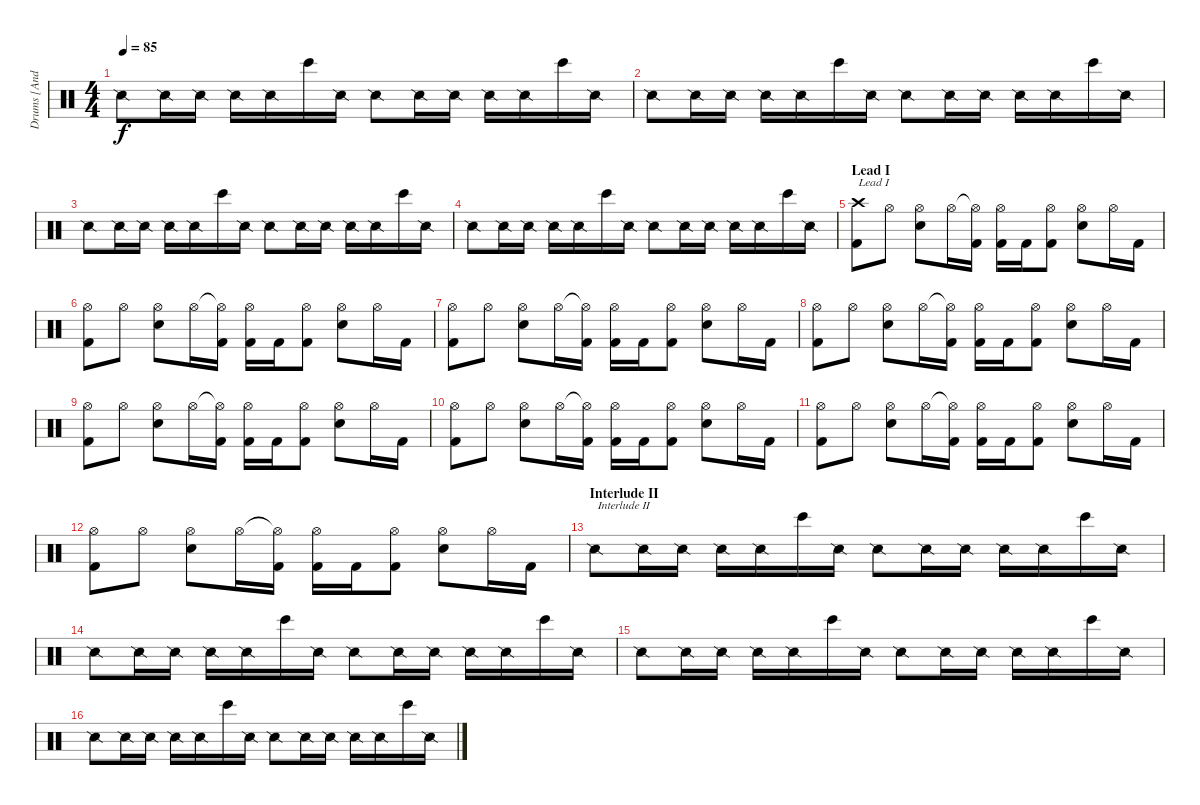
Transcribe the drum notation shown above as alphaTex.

\track ("Drums [Anders Kobro]" "Drums [And") {instrument percussion}
\staff {score}
\articulation defaults
\ts (4 4)
\tempo 85
\clef neutral
\ks c "Snare (side stick) 2".8{dy f} "Snare (side stick) 2".16 "Snare (side stick) 2".16 "Snare (side stick) 2".16 "Snare (side stick) 2".16 "Bongo High (hit)".16 "Snare (side stick) 2".16 "Snare (side stick) 2".8 "Snare (side stick) 2".16 "Snare (side stick) 2".16 "Snare (side stick) 2".16 "Snare (side stick) 2".16 "Bongo High (hit)".16 "Snare (side stick) 2".16
|
"Snare (side stick) 2".8 "Snare (side stick) 2".16 "Snare (side stick) 2".16 "Snare (side stick) 2".16 "Snare (side stick) 2".16 "Bongo High (hit)".16 "Snare (side stick) 2".16 "Snare (side stick) 2".8 "Snare (side stick) 2".16 "Snare (side stick) 2".16 "Snare (side stick) 2".16 "Snare (side stick) 2".16 "Bongo High (hit)".16 "Snare (side stick) 2".16 |
"Snare (side stick) 2".8 "Snare (side stick) 2".16 "Snare (side stick) 2".16 "Snare (side stick) 2".16 "Snare (side stick) 2".16 "Bongo High (hit)".16 "Snare (side stick) 2".16 "Snare (side stick) 2".8 "Snare (side stick) 2".16 "Snare (side stick) 2".16 "Snare (side stick) 2".16 "Snare (side stick) 2".16 "Bongo High (hit)".16 "Snare (side stick) 2".16 |
"Snare (side stick) 2".8 "Snare (side stick) 2".16 "Snare (side stick) 2".16 "Snare (side stick) 2".16 "Snare (side stick) 2".16 "Bongo High (hit)".16 "Snare (side stick) 2".16 "Snare (side stick) 2".8 "Snare (side stick) 2".16 "Snare (side stick) 2".16 "Snare (side stick) 2".16 "Snare (side stick) 2".16 "Bongo High (hit)".16 "Snare (side stick) 2".16 |
\section ("" "Lead I")
("Crash high (hit)" "Kick (hit) 2").8{txt "Lead I"} "Hi-Hat (open)".8 ("Hi-Hat (open)" "Electric Snare (hit)").8 "Hi-Hat (open)".16 ("Hi-Hat (open)"{t} "Kick (hit) 2").16 ("Hi-Hat (open)" "Kick (hit) 2").16 "Kick (hit) 2".16 ("Hi-Hat (open)" "Kick (hit) 2").8 ("Hi-Hat (open)" "Electric Snare (hit)").8 "Hi-Hat (open)".16 "Kick (hit) 2".16 |
("Hi-Hat (open)" "Kick (hit) 2").8 "Hi-Hat (open)".8 ("Hi-Hat (open)" "Electric Snare (hit)").8 "Hi-Hat (open)".16 ("Hi-Hat (open)"{t} "Kick (hit) 2").16 ("Hi-Hat (open)" "Kick (hit) 2").16 "Kick (hit) 2".16 ("Hi-Hat (open)" "Kick (hit) 2").8 ("Hi-Hat (open)" "Electric Snare (hit)").8 "Hi-Hat (open)".16 "Kick (hit) 2".16 |
("Hi-Hat (open)" "Kick (hit) 2").8 "Hi-Hat (open)".8 ("Hi-Hat (open)" "Electric Snare (hit)").8 "Hi-Hat (open)".16 ("Hi-Hat (open)"{t} "Kick (hit) 2").16 ("Hi-Hat (open)" "Kick (hit) 2").16 "Kick (hit) 2".16 ("Hi-Hat (open)" "Kick (hit) 2").8 ("Hi-Hat (open)" "Electric Snare (hit)").8 "Hi-Hat (open)".16 "Kick (hit) 2".16 |
("Hi-Hat (open)" "Kick (hit) 2").8 "Hi-Hat (open)".8 ("Hi-Hat (open)" "Electric Snare (hit)").8 "Hi-Hat (open)".16 ("Hi-Hat (open)"{t} "Kick (hit) 2").16 ("Hi-Hat (open)" "Kick (hit) 2").16 "Kick (hit) 2".16 ("Hi-Hat (open)" "Kick (hit) 2").8 ("Hi-Hat (open)" "Electric Snare (hit)").8 "Hi-Hat (open)".16 "Kick (hit) 2".16 |
("Hi-Hat (open)" "Kick (hit) 2").8 "Hi-Hat (open)".8 ("Hi-Hat (open)" "Electric Snare (hit)").8 "Hi-Hat (open)".16 ("Hi-Hat (open)"{t} "Kick (hit) 2").16 ("Hi-Hat (open)" "Kick (hit) 2").16 "Kick (hit) 2".16 ("Hi-Hat (open)" "Kick (hit) 2").8 ("Hi-Hat (open)" "Electric Snare (hit)").8 "Hi-Hat (open)".16 "Kick (hit) 2".16 |
("Hi-Hat (open)" "Kick (hit) 2").8 "Hi-Hat (open)".8 ("Hi-Hat (open)" "Electric Snare (hit)").8 "Hi-Hat (open)".16 ("Hi-Hat (open)"{t} "Kick (hit) 2").16 ("Hi-Hat (open)" "Kick (hit) 2").16 "Kick (hit) 2".16 ("Hi-Hat (open)" "Kick (hit) 2").8 ("Hi-Hat (open)" "Electric Snare (hit)").8 "Hi-Hat (open)".16 "Kick (hit) 2".16 |
("Hi-Hat (open)" "Kick (hit) 2").8 "Hi-Hat (open)".8 ("Hi-Hat (open)" "Electric Snare (hit)").8 "Hi-Hat (open)".16 ("Hi-Hat (open)"{t} "Kick (hit) 2").16 ("Hi-Hat (open)" "Kick (hit) 2").16 "Kick (hit) 2".16 ("Hi-Hat (open)" "Kick (hit) 2").8 ("Hi-Hat (open)" "Electric Snare (hit)").8 "Hi-Hat (open)".16 "Kick (hit) 2".16 |
("Hi-Hat (open)" "Kick (hit) 2").8 "Hi-Hat (open)".8 ("Hi-Hat (open)" "Electric Snare (hit)").8 "Hi-Hat (open)".16 ("Hi-Hat (open)"{t} "Kick (hit) 2").16 ("Hi-Hat (open)" "Kick (hit) 2").16 "Kick (hit) 2".16 ("Hi-Hat (open)" "Kick (hit) 2").8 ("Hi-Hat (open)" "Electric Snare (hit)").8 "Hi-Hat (open)".16 "Kick (hit) 2".16 |
\section ("" "Interlude II")
"Snare (side stick) 2".8{txt "Interlude II"} "Snare (side stick) 2".16 "Snare (side stick) 2".16 "Snare (side stick) 2".16 "Snare (side stick) 2".16 "Bongo High (hit)".16 "Snare (side stick) 2".16 "Snare (side stick) 2".8 "Snare (side stick) 2".16 "Snare (side stick) 2".16 "Snare (side stick) 2".16 "Snare (side stick) 2".16 "Bongo High (hit)".16 "Snare (side stick) 2".16 |
"Snare (side stick) 2".8 "Snare (side stick) 2".16 "Snare (side stick) 2".16 "Snare (side stick) 2".16 "Snare (side stick) 2".16 "Bongo High (hit)".16 "Snare (side stick) 2".16 "Snare (side stick) 2".8 "Snare (side stick) 2".16 "Snare (side stick) 2".16 "Snare (side stick) 2".16 "Snare (side stick) 2".16 "Bongo High (hit)".16 "Snare (side stick) 2".16 |
"Snare (side stick) 2".8 "Snare (side stick) 2".16 "Snare (side stick) 2".16 "Snare (side stick) 2".16 "Snare (side stick) 2".16 "Bongo High (hit)".16 "Snare (side stick) 2".16 "Snare (side stick) 2".8 "Snare (side stick) 2".16 "Snare (side stick) 2".16 "Snare (side stick) 2".16 "Snare (side stick) 2".16 "Bongo High (hit)".16 "Snare (side stick) 2".16 |
"Snare (side stick) 2".8 "Snare (side stick) 2".16 "Snare (side stick) 2".16 "Snare (side stick) 2".16 "Snare (side stick) 2".16 "Bongo High (hit)".16 "Snare (side stick) 2".16 "Snare (side stick) 2".8 "Snare (side stick) 2".16 "Snare (side stick) 2".16 "Snare (side stick) 2".16 "Snare (side stick) 2".16 "Bongo High (hit)".16 "Snare (side stick) 2".16
